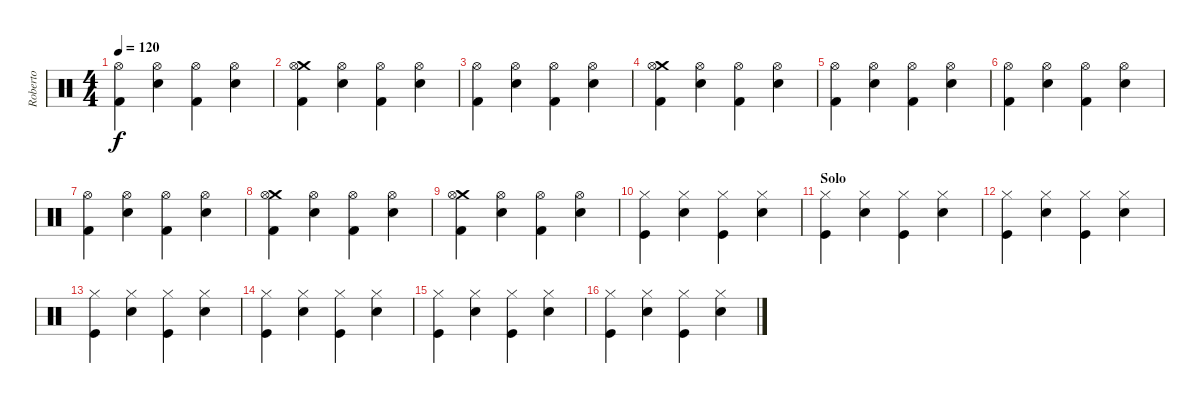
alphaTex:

\track ("Roberto" "Roberto") {instrument percussion}
\staff {score}
\articulation defaults
\ts (4 4)
\tempo 120
\clef neutral
\ks c
("Hi-Hat (open)" "Kick (hit) 2").4{dy f} ("Hi-Hat (open)" "Snare (hit) 2").4 ("Hi-Hat (open)" "Kick (hit) 2").4 ("Hi-Hat (open)" "Snare (hit) 2").4 |
("Crash medium (hit)" "Hi-Hat (open)" "Kick (hit) 2").4 ("Hi-Hat (open)" "Snare (hit) 2").4 ("Hi-Hat (open)" "Kick (hit) 2").4 ("Hi-Hat (open)" "Snare (hit) 2").4 |
("Hi-Hat (open)" "Kick (hit) 2").4 ("Hi-Hat (open)" "Snare (hit) 2").4 ("Hi-Hat (open)" "Kick (hit) 2").4 ("Hi-Hat (open)" "Snare (hit) 2").4 |
("Crash medium (hit)" "Hi-Hat (open)" "Kick (hit) 2").4 ("Hi-Hat (open)" "Snare (hit) 2").4 ("Hi-Hat (open)" "Kick (hit) 2").4 ("Hi-Hat (open)" "Snare (hit) 2").4 |
("Hi-Hat (open)" "Kick (hit) 2").4 ("Hi-Hat (open)" "Snare (hit) 2").4 ("Hi-Hat (open)" "Kick (hit) 2").4 ("Hi-Hat (open)" "Snare (hit) 2").4 |
("Hi-Hat (open)" "Kick (hit) 2").4 ("Hi-Hat (open)" "Snare (hit) 2").4 ("Hi-Hat (open)" "Kick (hit) 2").4 ("Hi-Hat (open)" "Snare (hit) 2").4 |
("Hi-Hat (open)" "Kick (hit) 2").4 ("Hi-Hat (open)" "Snare (hit) 2").4 ("Hi-Hat (open)" "Kick (hit) 2").4 ("Hi-Hat (open)" "Snare (hit) 2").4 |
("Crash medium (hit)" "Hi-Hat (open)" "Kick (hit) 2").4{volume 16} ("Hi-Hat (open)" "Snare (hit) 2").4 ("Hi-Hat (open)" "Kick (hit) 2").4 ("Hi-Hat (open)" "Snare (hit) 2").4 |
("Crash medium (hit)" "Hi-Hat (open)" "Kick (hit) 2").4 ("Hi-Hat (open)" "Snare (hit) 2").4 ("Hi-Hat (open)" "Kick (hit) 2").4 ("Hi-Hat (open)" "Snare (hit) 2").4 |
("Hi-Hat (closed)" "Kick (hit)").4 ("Hi-Hat (closed)" "Snare (hit) 2").4 ("Hi-Hat (closed)" "Kick (hit)").4 ("Hi-Hat (closed)" "Snare (hit) 2").4 |
\section ("" "Solo")
("Hi-Hat (closed)" "Kick (hit)").4 ("Hi-Hat (closed)" "Snare (hit) 2").4 ("Hi-Hat (closed)" "Kick (hit)").4 ("Hi-Hat (closed)" "Snare (hit) 2").4 |
("Hi-Hat (closed)" "Kick (hit)").4 ("Hi-Hat (closed)" "Snare (hit) 2").4 ("Hi-Hat (closed)" "Kick (hit)").4 ("Hi-Hat (closed)" "Snare (hit) 2").4 |
("Hi-Hat (closed)" "Kick (hit)").4 ("Hi-Hat (closed)" "Snare (hit) 2").4 ("Hi-Hat (closed)" "Kick (hit)").4 ("Hi-Hat (closed)" "Snare (hit) 2").4 |
("Hi-Hat (closed)" "Kick (hit)").4 ("Hi-Hat (closed)" "Snare (hit) 2").4 ("Hi-Hat (closed)" "Kick (hit)").4 ("Hi-Hat (closed)" "Snare (hit) 2").4 |
\section ("" "")
("Hi-Hat (closed)" "Kick (hit)").4 ("Hi-Hat (closed)" "Snare (hit) 2").4 ("Hi-Hat (closed)" "Kick (hit)").4 ("Hi-Hat (closed)" "Snare (hit) 2").4 |
("Hi-Hat (closed)" "Kick (hit)").4 ("Hi-Hat (closed)" "Snare (hit) 2").4 ("Hi-Hat (closed)" "Kick (hit)").4 ("Hi-Hat (closed)" "Snare (hit) 2").4
